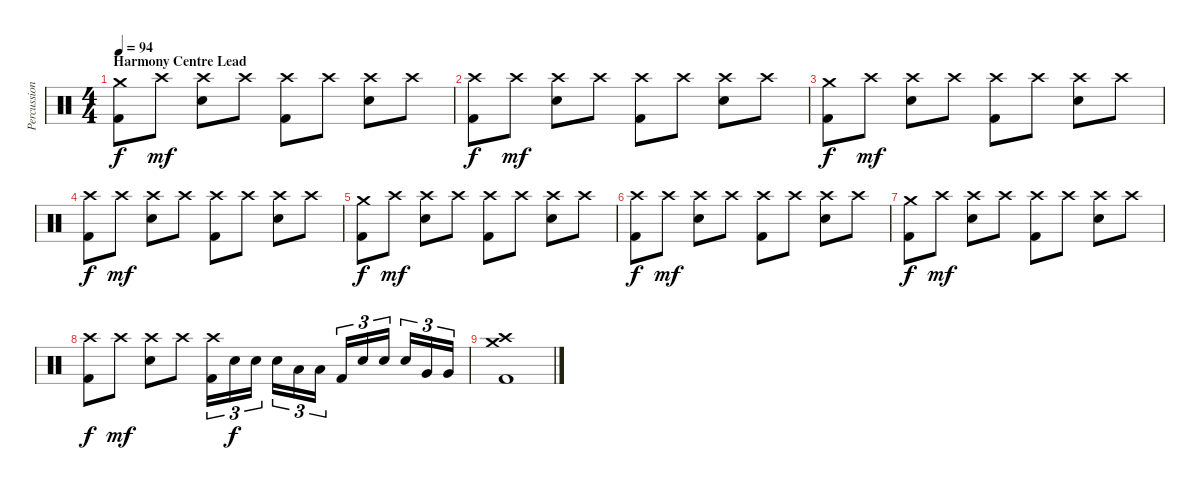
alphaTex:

\track ("Percussion" "Percussion") {instrument percussion}
\staff {score}
\articulation defaults
\ts (4 4)
\section ("" "Harmony Centre Lead")
\tempo 94
\clef neutral
\ks c
("Crash medium (hit)" "Kick (hit) 2").8{dy f} "Crash high (hit)".8{dy mf} ("Crash high (hit)" "Electric Snare (hit)").8 "Crash high (hit)".8 ("Crash high (hit)" "Kick (hit) 2").8 "Crash high (hit)".8 ("Crash high (hit)" "Electric Snare (hit)").8 "Crash high (hit)".8 |
("Crash high (hit)" "Kick (hit) 2").8{dy f} "Crash high (hit)".8{dy mf} ("Crash high (hit)" "Electric Snare (hit)").8 "Crash high (hit)".8 ("Crash high (hit)" "Kick (hit) 2").8 "Crash high (hit)".8 ("Crash high (hit)" "Electric Snare (hit)").8 "Crash high (hit)".8 |
("Crash medium (hit)" "Kick (hit) 2").8{dy f} "Crash high (hit)".8{dy mf} ("Crash high (hit)" "Electric Snare (hit)").8 "Crash high (hit)".8 ("Crash high (hit)" "Kick (hit) 2").8 "Crash high (hit)".8 ("Crash high (hit)" "Electric Snare (hit)").8 "Crash high (hit)".8 |
("Crash high (hit)" "Kick (hit) 2").8{dy f} "Crash high (hit)".8{dy mf} ("Crash high (hit)" "Electric Snare (hit)").8 "Crash high (hit)".8 ("Crash high (hit)" "Kick (hit) 2").8 "Crash high (hit)".8 ("Crash high (hit)" "Electric Snare (hit)").8 "Crash high (hit)".8 |
("Crash medium (hit)" "Kick (hit) 2").8{dy f} "Crash high (hit)".8{dy mf} ("Crash high (hit)" "Electric Snare (hit)").8 "Crash high (hit)".8 ("Crash high (hit)" "Kick (hit) 2").8 "Crash high (hit)".8 ("Crash high (hit)" "Electric Snare (hit)").8 "Crash high (hit)".8 |
("Crash high (hit)" "Kick (hit) 2").8{dy f} "Crash high (hit)".8{dy mf} ("Crash high (hit)" "Electric Snare (hit)").8 "Crash high (hit)".8 ("Crash high (hit)" "Kick (hit) 2").8 "Crash high (hit)".8 ("Crash high (hit)" "Electric Snare (hit)").8 "Crash high (hit)".8 |
("Crash medium (hit)" "Kick (hit) 2").8{dy f} "Crash high (hit)".8{dy mf} ("Crash high (hit)" "Electric Snare (hit)").8 "Crash high (hit)".8 ("Crash high (hit)" "Kick (hit) 2").8 "Crash high (hit)".8 ("Crash high (hit)" "Electric Snare (hit)").8 "Crash high (hit)".8 |
("Crash high (hit)" "Kick (hit) 2").8{dy f} "Crash high (hit)".8{dy mf} ("Crash high (hit)" "Electric Snare (hit)").8 "Crash high (hit)".8 ("Crash high (hit)" "Kick (hit) 2").16{tu (3 2)} "Electric Snare (hit)".16{tu (3 2) dy f} "Electric Snare (hit)".16{tu (3 2)} "Electric Snare (hit)".16{tu (3 2)} "Low Tom (hit)".16{tu (3 2)} "Low Tom (hit)".16{tu (3 2)} "Kick (hit) 2".16{tu (3 2)} "Electric Snare (hit)".16{tu (3 2)} "Electric Snare (hit)".16{tu (3 2)} "Electric Snare (hit)".16{tu (3 2)} "Very Low Tom (hit)".16{tu (3 2)} "Very Low Tom (hit)".16{tu (3 2)} |
("Crash medium (hit)" "Crash high (hit)" "Kick (hit) 2").1
